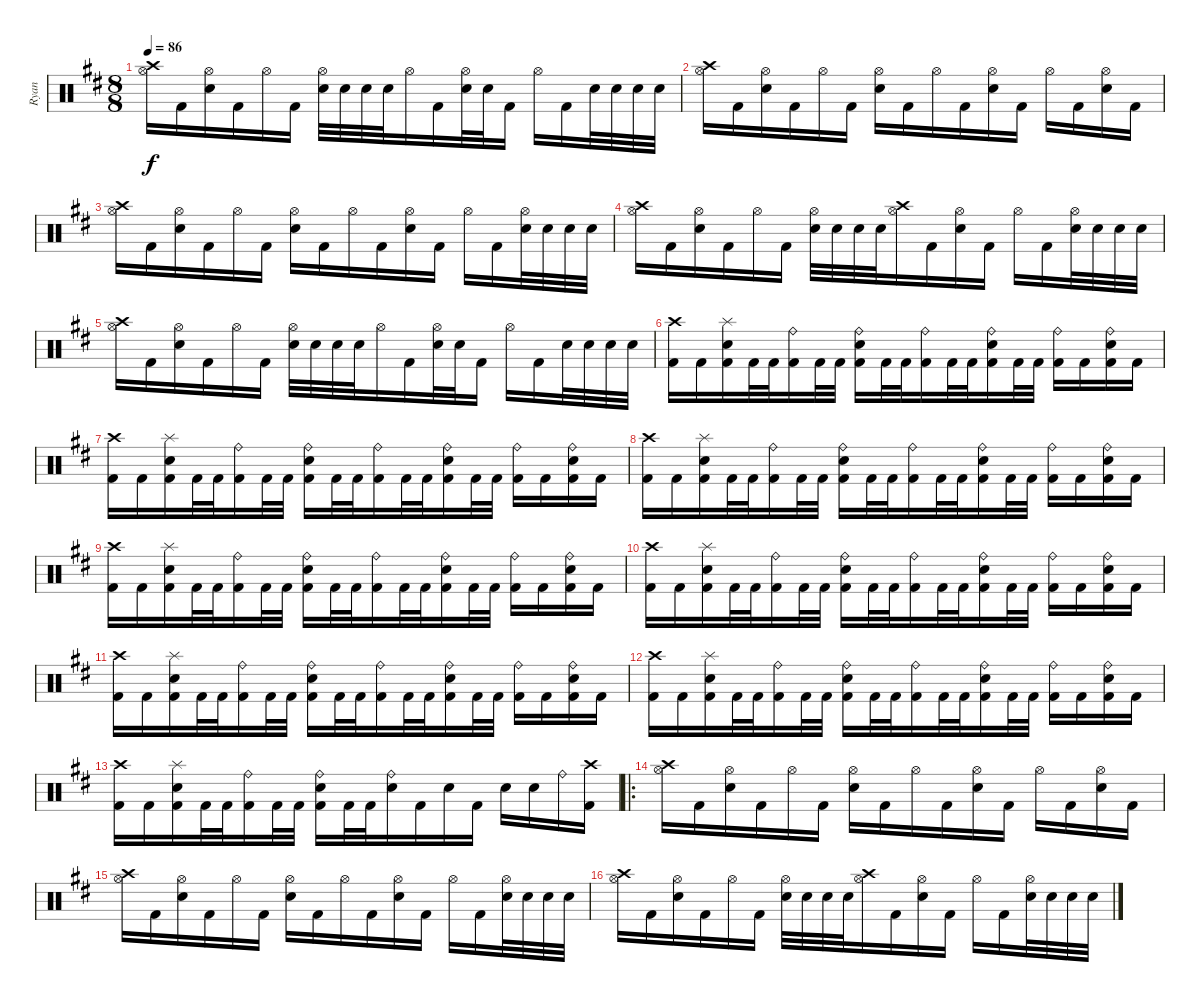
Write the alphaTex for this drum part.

\track ("Ryan" "Ryan") {instrument percussion}
\staff {score}
\articulation defaults
\ts (8 8)
\tempo 86
\clef neutral
\ks d
("Crash high (hit)" "Hi-Hat (open)").16{dy f} "Kick (hit) 2".16 ("Hi-Hat (open)" "Snare (hit) 2").16 "Kick (hit) 2".16 "Hi-Hat (open)".16 "Kick (hit) 2".16 ("Hi-Hat (open)" "Snare (hit) 2").32 "Snare (hit) 2".32 "Snare (hit) 2".32 "Snare (hit) 2".32 "Hi-Hat (open)".16 "Kick (hit) 2".16 ("Hi-Hat (open)" "Snare (hit) 2").32 "Snare (hit) 2".32 "Kick (hit) 2".16 "Hi-Hat (open)".16 "Kick (hit) 2".16 "Snare (hit) 2".32 "Snare (hit) 2".32 "Snare (hit) 2".32 "Snare (hit) 2".32 |
("Crash high (hit)" "Hi-Hat (open)").16 "Kick (hit) 2".16 ("Hi-Hat (open)" "Snare (hit) 2").16 "Kick (hit) 2".16 "Hi-Hat (open)".16 "Kick (hit) 2".16 ("Hi-Hat (open)" "Snare (hit) 2").16 "Kick (hit) 2".16 "Hi-Hat (open)".16 "Kick (hit) 2".16 ("Hi-Hat (open)" "Snare (hit) 2").16 "Kick (hit) 2".16 "Hi-Hat (open)".16 "Kick (hit) 2".16 ("Hi-Hat (open)" "Snare (hit) 2").16 "Kick (hit) 2".16 |
("Crash high (hit)" "Hi-Hat (open)").16 "Kick (hit) 2".16 ("Hi-Hat (open)" "Snare (hit) 2").16 "Kick (hit) 2".16 "Hi-Hat (open)".16 "Kick (hit) 2".16 ("Hi-Hat (open)" "Snare (hit) 2").16 "Kick (hit) 2".16 "Hi-Hat (open)".16 "Kick (hit) 2".16 ("Hi-Hat (open)" "Snare (hit) 2").16 "Kick (hit) 2".16 "Hi-Hat (open)".16 "Kick (hit) 2".16 ("Hi-Hat (open)" "Snare (hit) 2").32 "Snare (hit) 2".32 "Snare (hit) 2".32 "Snare (hit) 2".32 |
("Crash high (hit)" "Hi-Hat (open)").16 "Kick (hit) 2".16 ("Hi-Hat (open)" "Snare (hit) 2").16 "Kick (hit) 2".16 "Hi-Hat (open)".16 "Kick (hit) 2".16 ("Hi-Hat (open)" "Snare (hit) 2").32 "Snare (hit) 2".32 "Snare (hit) 2".32 "Snare (hit) 2".32 ("Crash high (hit)" "Hi-Hat (open)").16 "Kick (hit) 2".16 ("Hi-Hat (open)" "Snare (hit) 2").16 "Kick (hit) 2".16 "Hi-Hat (open)".16 "Kick (hit) 2".16 ("Hi-Hat (open)" "Snare (hit) 2").32 "Snare (hit) 2".32 "Snare (hit) 2".32 "Snare (hit) 2".32 |
("Crash high (hit)" "Hi-Hat (open)").16 "Kick (hit) 2".16 ("Hi-Hat (open)" "Snare (hit) 2").16 "Kick (hit) 2".16 "Hi-Hat (open)".16 "Kick (hit) 2".16 ("Hi-Hat (open)" "Snare (hit) 2").32 "Snare (hit) 2".32 "Snare (hit) 2".32 "Snare (hit) 2".32 "Hi-Hat (open)".16 "Kick (hit) 2".16 ("Hi-Hat (open)" "Snare (hit) 2").32 "Snare (hit) 2".32 "Kick (hit) 2".16 "Hi-Hat (open)".16 "Kick (hit) 2".16 "Snare (hit) 2".32 "Snare (hit) 2".32 "Snare (hit) 2".32 "Snare (hit) 2".32 |
("Crash high (hit)" "Kick (hit) 2").16 "Kick (hit) 2".16 ("Splash (hit)" "Snare (hit) 2" "Kick (hit) 2").16 "Kick (hit) 2".32 "Kick (hit) 2".32 ("Ride (bell)" "Kick (hit) 2").16 "Kick (hit) 2".32 "Kick (hit) 2".32 ("Ride (bell)" "Snare (hit) 2" "Kick (hit) 2").16 "Kick (hit) 2".32 "Kick (hit) 2".32 ("Ride (bell)" "Kick (hit) 2").16 "Kick (hit) 2".32 "Kick (hit) 2".32 ("Ride (bell)" "Snare (hit) 2" "Kick (hit) 2").16 "Kick (hit) 2".32 "Kick (hit) 2".32 ("Ride (bell)" "Kick (hit) 2").16 "Kick (hit) 2".16 ("Ride (bell)" "Snare (hit) 2" "Kick (hit) 2").16 "Kick (hit) 2".16 |
("Crash high (hit)" "Kick (hit) 2").16 "Kick (hit) 2".16 ("Splash (hit)" "Snare (hit) 2" "Kick (hit) 2").16 "Kick (hit) 2".32 "Kick (hit) 2".32 ("Ride (bell)" "Kick (hit) 2").16 "Kick (hit) 2".32 "Kick (hit) 2".32 ("Ride (bell)" "Snare (hit) 2" "Kick (hit) 2").16 "Kick (hit) 2".32 "Kick (hit) 2".32 ("Ride (bell)" "Kick (hit) 2").16 "Kick (hit) 2".32 "Kick (hit) 2".32 ("Ride (bell)" "Snare (hit) 2" "Kick (hit) 2").16 "Kick (hit) 2".32 "Kick (hit) 2".32 ("Ride (bell)" "Kick (hit) 2").16 "Kick (hit) 2".16 ("Ride (bell)" "Snare (hit) 2" "Kick (hit) 2").16 "Kick (hit) 2".16 |
("Crash high (hit)" "Kick (hit) 2").16 "Kick (hit) 2".16 ("Splash (hit)" "Snare (hit) 2" "Kick (hit) 2").16 "Kick (hit) 2".32 "Kick (hit) 2".32 ("Ride (bell)" "Kick (hit) 2").16 "Kick (hit) 2".32 "Kick (hit) 2".32 ("Ride (bell)" "Snare (hit) 2" "Kick (hit) 2").16 "Kick (hit) 2".32 "Kick (hit) 2".32 ("Ride (bell)" "Kick (hit) 2").16 "Kick (hit) 2".32 "Kick (hit) 2".32 ("Ride (bell)" "Snare (hit) 2" "Kick (hit) 2").16 "Kick (hit) 2".32 "Kick (hit) 2".32 ("Ride (bell)" "Kick (hit) 2").16 "Kick (hit) 2".16 ("Ride (bell)" "Snare (hit) 2" "Kick (hit) 2").16 "Kick (hit) 2".16 |
("Crash high (hit)" "Kick (hit) 2").16 "Kick (hit) 2".16 ("Splash (hit)" "Snare (hit) 2" "Kick (hit) 2").16 "Kick (hit) 2".32 "Kick (hit) 2".32 ("Ride (bell)" "Kick (hit) 2").16 "Kick (hit) 2".32 "Kick (hit) 2".32 ("Ride (bell)" "Snare (hit) 2" "Kick (hit) 2").16 "Kick (hit) 2".32 "Kick (hit) 2".32 ("Ride (bell)" "Kick (hit) 2").16 "Kick (hit) 2".32 "Kick (hit) 2".32 ("Ride (bell)" "Snare (hit) 2" "Kick (hit) 2").16 "Kick (hit) 2".32 "Kick (hit) 2".32 ("Ride (bell)" "Kick (hit) 2").16 "Kick (hit) 2".16 ("Ride (bell)" "Snare (hit) 2" "Kick (hit) 2").16 "Kick (hit) 2".16 |
("Crash high (hit)" "Kick (hit) 2").16 "Kick (hit) 2".16 ("Splash (hit)" "Snare (hit) 2" "Kick (hit) 2").16 "Kick (hit) 2".32 "Kick (hit) 2".32 ("Ride (bell)" "Kick (hit) 2").16 "Kick (hit) 2".32 "Kick (hit) 2".32 ("Ride (bell)" "Snare (hit) 2" "Kick (hit) 2").16 "Kick (hit) 2".32 "Kick (hit) 2".32 ("Ride (bell)" "Kick (hit) 2").16 "Kick (hit) 2".32 "Kick (hit) 2".32 ("Ride (bell)" "Snare (hit) 2" "Kick (hit) 2").16 "Kick (hit) 2".32 "Kick (hit) 2".32 ("Ride (bell)" "Kick (hit) 2").16 "Kick (hit) 2".16 ("Ride (bell)" "Snare (hit) 2" "Kick (hit) 2").16 "Kick (hit) 2".16 |
("Crash high (hit)" "Kick (hit) 2").16 "Kick (hit) 2".16 ("Splash (hit)" "Snare (hit) 2" "Kick (hit) 2").16 "Kick (hit) 2".32 "Kick (hit) 2".32 ("Ride (bell)" "Kick (hit) 2").16 "Kick (hit) 2".32 "Kick (hit) 2".32 ("Ride (bell)" "Snare (hit) 2" "Kick (hit) 2").16 "Kick (hit) 2".32 "Kick (hit) 2".32 ("Ride (bell)" "Kick (hit) 2").16 "Kick (hit) 2".32 "Kick (hit) 2".32 ("Ride (bell)" "Snare (hit) 2" "Kick (hit) 2").16 "Kick (hit) 2".32 "Kick (hit) 2".32 ("Ride (bell)" "Kick (hit) 2").16 "Kick (hit) 2".16 ("Ride (bell)" "Snare (hit) 2" "Kick (hit) 2").16 "Kick (hit) 2".16 |
("Crash high (hit)" "Kick (hit) 2").16 "Kick (hit) 2".16 ("Splash (hit)" "Snare (hit) 2" "Kick (hit) 2").16 "Kick (hit) 2".32 "Kick (hit) 2".32 ("Ride (bell)" "Kick (hit) 2").16 "Kick (hit) 2".32 "Kick (hit) 2".32 ("Ride (bell)" "Snare (hit) 2" "Kick (hit) 2").16 "Kick (hit) 2".32 "Kick (hit) 2".32 ("Ride (bell)" "Kick (hit) 2").16 "Kick (hit) 2".32 "Kick (hit) 2".32 ("Ride (bell)" "Snare (hit) 2" "Kick (hit) 2").16 "Kick (hit) 2".32 "Kick (hit) 2".32 ("Ride (bell)" "Kick (hit) 2").16 "Kick (hit) 2".16 ("Ride (bell)" "Snare (hit) 2" "Kick (hit) 2").16 "Kick (hit) 2".16 |
("Crash high (hit)" "Kick (hit) 2").16 "Kick (hit) 2".16 ("Splash (hit)" "Snare (hit) 2" "Kick (hit) 2").16 "Kick (hit) 2".32 "Kick (hit) 2".32 ("Ride (bell)" "Kick (hit) 2").16 "Kick (hit) 2".32 "Kick (hit) 2".32 ("Ride (bell)" "Snare (hit) 2" "Kick (hit) 2").16 "Kick (hit) 2".32 "Kick (hit) 2".32 ("Ride (bell)" "Snare (hit) 2").16 "Kick (hit) 2".16 "Snare (hit) 2".16 "Kick (hit) 2".16 "Snare (hit) 2".16 "Snare (hit) 2".16 "Ride (bell)".16 ("Crash high (hit)" "Kick (hit) 2").16 |
\ro
("Crash high (hit)" "Hi-Hat (open)").16 "Kick (hit) 2".16 ("Hi-Hat (open)" "Snare (hit) 2").16 "Kick (hit) 2".16 "Hi-Hat (open)".16 "Kick (hit) 2".16 ("Hi-Hat (open)" "Snare (hit) 2").16 "Kick (hit) 2".16 "Hi-Hat (open)".16 "Kick (hit) 2".16 ("Hi-Hat (open)" "Snare (hit) 2").16 "Kick (hit) 2".16 "Hi-Hat (open)".16 "Kick (hit) 2".16 ("Hi-Hat (open)" "Snare (hit) 2").16 "Kick (hit) 2".16 |
("Crash high (hit)" "Hi-Hat (open)").16 "Kick (hit) 2".16 ("Hi-Hat (open)" "Snare (hit) 2").16 "Kick (hit) 2".16 "Hi-Hat (open)".16 "Kick (hit) 2".16 ("Hi-Hat (open)" "Snare (hit) 2").16 "Kick (hit) 2".16 "Hi-Hat (open)".16 "Kick (hit) 2".16 ("Hi-Hat (open)" "Snare (hit) 2").16 "Kick (hit) 2".16 "Hi-Hat (open)".16 "Kick (hit) 2".16 ("Hi-Hat (open)" "Snare (hit) 2").32 "Snare (hit) 2".32 "Snare (hit) 2".32 "Snare (hit) 2".32 |
("Crash high (hit)" "Hi-Hat (open)").16 "Kick (hit) 2".16 ("Hi-Hat (open)" "Snare (hit) 2").16 "Kick (hit) 2".16 "Hi-Hat (open)".16 "Kick (hit) 2".16 ("Hi-Hat (open)" "Snare (hit) 2").32 "Snare (hit) 2".32 "Snare (hit) 2".32 "Snare (hit) 2".32 ("Crash high (hit)" "Hi-Hat (open)").16 "Kick (hit) 2".16 ("Hi-Hat (open)" "Snare (hit) 2").16 "Kick (hit) 2".16 "Hi-Hat (open)".16 "Kick (hit) 2".16 ("Hi-Hat (open)" "Snare (hit) 2").32 "Snare (hit) 2".32 "Snare (hit) 2".32 "Snare (hit) 2".32
